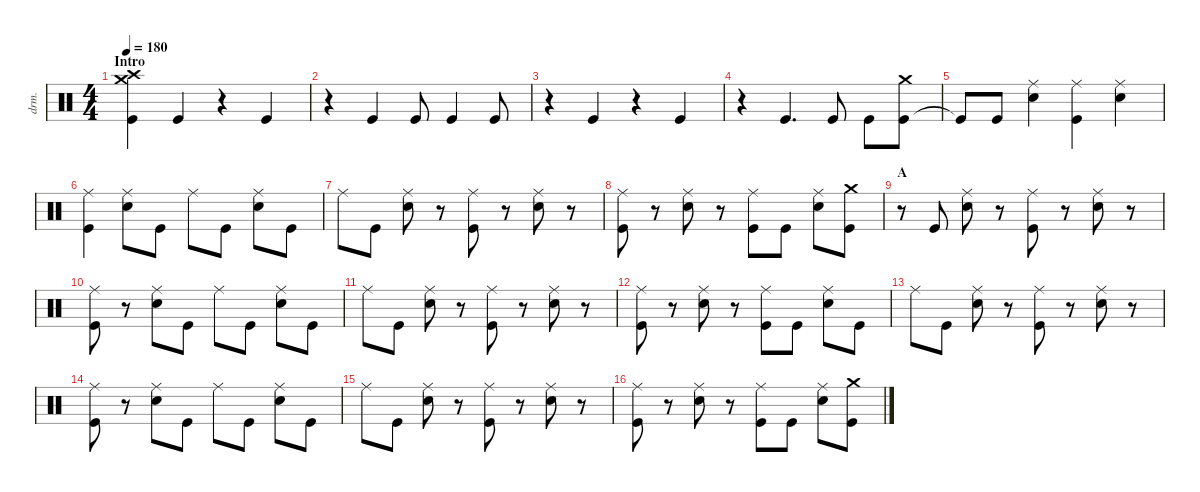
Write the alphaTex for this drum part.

\defaultSystemsLayout 4
\hideDynamics
\bracketExtendMode nobrackets
\track ("Bateria" "drm.") {instrument percussion}
\staff {score}
\articulation defaults
\ts (4 4)
\section ("" "Intro")
\tempo 180
\clef neutral
\ks c
("Kick (hit)" "Crash medium (hit)" "Crash high (hit)").4{dy f} "Kick (hit)".4 r.4 "Kick (hit)".4 |
r.4 "Kick (hit)".4 "Kick (hit)".8 "Kick (hit)".4 "Kick (hit)".8 |
r.4 "Kick (hit)".4 r.4 "Kick (hit)".4 |
r.4 "Kick (hit)".4{d} "Kick (hit)".8 "Kick (hit)".8 ("Kick (hit)" "Crash medium (hit)").8 |
"Kick (hit)"{t}.8 "Kick (hit)".8 ("Ride (middle)" "Snare (hit) 2").4 ("Ride (middle)" "Kick (hit)").4 ("Ride (middle)" "Snare (hit) 2").4 |
("Ride (middle)" "Kick (hit)").4 ("Ride (middle)" "Snare (hit) 2").8 "Kick (hit)".8 "Ride (middle)".8 "Kick (hit)".8 ("Ride (middle)" "Snare (hit) 2").8 "Kick (hit)".8 |
"Ride (middle)".8 "Kick (hit)".8 ("Ride (middle)" "Snare (hit) 2").8 r.8 ("Ride (middle)" "Kick (hit)").8 r.8 ("Ride (middle)" "Snare (hit) 2").8 r.8 |
("Ride (middle)" "Kick (hit)").8 r.8 ("Ride (middle)" "Snare (hit) 2").8 r.8 ("Ride (middle)" "Kick (hit)").8 "Kick (hit)".8 ("Ride (middle)" "Snare (hit) 2").8 ("Kick (hit)" "Crash medium (hit)").8 |
\section ("" "A")
r.8 "Kick (hit)".8 ("Ride (middle)" "Snare (hit) 2").8 r.8 ("Ride (middle)" "Kick (hit)").8 r.8 ("Ride (middle)" "Snare (hit) 2").8 r.8 |
("Ride (middle)" "Kick (hit)").8 r.8 ("Ride (middle)" "Snare (hit) 2").8 "Kick (hit)".8 "Ride (middle)".8 "Kick (hit)".8 ("Ride (middle)" "Snare (hit) 2").8 "Kick (hit)".8 |
"Ride (middle)".8 "Kick (hit)".8 ("Ride (middle)" "Snare (hit) 2").8 r.8 ("Ride (middle)" "Kick (hit)").8 r.8 ("Ride (middle)" "Snare (hit) 2").8 r.8 |
("Ride (middle)" "Kick (hit)").8 r.8 ("Ride (middle)" "Snare (hit) 2").8 r.8 ("Ride (middle)" "Kick (hit)").8 "Kick (hit)".8 ("Ride (middle)" "Snare (hit) 2").8 "Kick (hit)".8 |
"Ride (middle)".8 "Kick (hit)".8 ("Ride (middle)" "Snare (hit) 2").8 r.8 ("Ride (middle)" "Kick (hit)").8 r.8 ("Ride (middle)" "Snare (hit) 2").8 r.8 |
("Ride (middle)" "Kick (hit)").8 r.8 ("Ride (middle)" "Snare (hit) 2").8 "Kick (hit)".8 "Ride (middle)".8 "Kick (hit)".8 ("Ride (middle)" "Snare (hit) 2").8 "Kick (hit)".8 |
"Ride (middle)".8 "Kick (hit)".8 ("Ride (middle)" "Snare (hit) 2").8 r.8 ("Ride (middle)" "Kick (hit)").8 r.8 ("Ride (middle)" "Snare (hit) 2").8 r.8 |
("Ride (middle)" "Kick (hit)").8 r.8 ("Ride (middle)" "Snare (hit) 2").8 r.8 ("Ride (middle)" "Kick (hit)").8 "Kick (hit)".8 ("Ride (middle)" "Snare (hit) 2").8 ("Kick (hit)" "Crash medium (hit)").8
